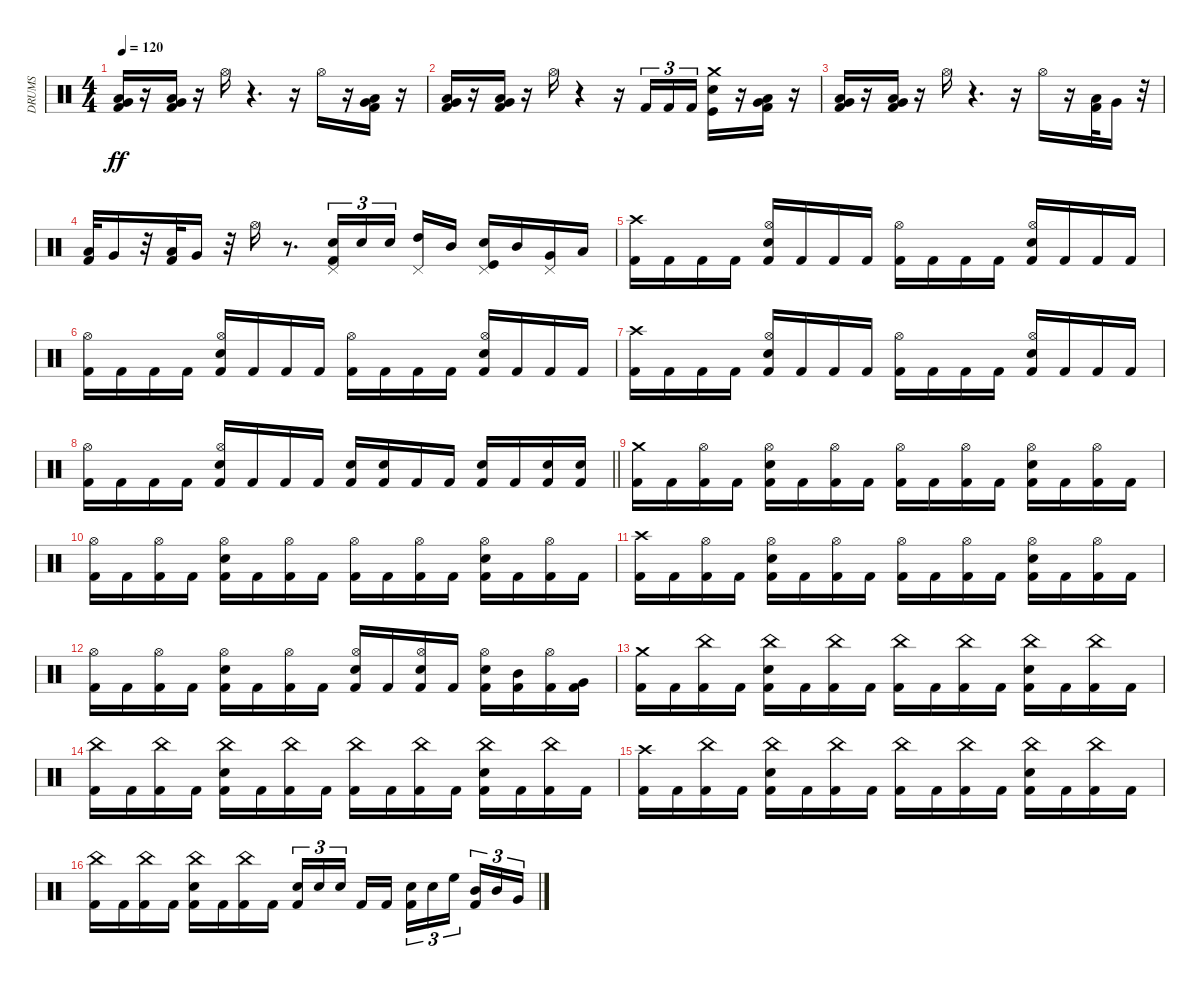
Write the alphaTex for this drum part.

\track ("DRUMS" "DRUMS") {instrument percussion}
\staff {score}
\articulation defaults
\ts (4 4)
\section ("" "")
\tempo 120
\clef neutral
\ks c
("Kick (hit) 2" "Low Floor Tom (hit)" "Very Low Tom (hit)").16{dy ff} r.16 ("Kick (hit) 2" "Low Floor Tom (hit)" "Very Low Tom (hit)").16 r.16 "Hi-Hat (open)".16 r.4{d} r.16 "Hi-Hat (open)".16 r.16 ("Kick (hit) 2" "Low Floor Tom (hit)" "Very Low Tom (hit)").16 r.16 |
("Kick (hit) 2" "Low Floor Tom (hit)" "Very Low Tom (hit)").16 r.16 ("Kick (hit) 2" "Low Floor Tom (hit)" "Very Low Tom (hit)").16 r.16 "Hi-Hat (open)".16 r.4 r.16 "Kick (hit) 2".16{tu (3 2)} "Kick (hit) 2".16{tu (3 2)} "Kick (hit) 2".16{tu (3 2)} ("Kick (hit)" "Electric Snare (hit)" "Crash medium (hit)").16 r.16 ("Kick (hit) 2" "Low Floor Tom (hit)" "Very Low Tom (hit)").16 r.16 |
("Kick (hit) 2" "Low Floor Tom (hit)" "Very Low Tom (hit)").16 r.16 ("Kick (hit) 2" "Low Floor Tom (hit)" "Very Low Tom (hit)").16 r.16 "Hi-Hat (open)".16 r.4{d} r.16 "Hi-Hat (open)".16 r.16 ("Kick (hit) 2" "Low Floor Tom (hit)").32 "Very Low Tom (hit)".16 r.32 |
("Kick (hit) 2" "Low Floor Tom (hit)").32 "Very Low Tom (hit)".16 r.32 ("Kick (hit) 2" "Low Floor Tom (hit)").32 "Very Low Tom (hit)".16 r.32 "Hi-Hat (open)".16 r.8{d} ("Kick (hit) 2" "Electric Snare (hit)" "Pedal Hi-Hat (hit)").16{tu (3 2)} "Electric Snare (hit)".16{tu (3 2)} "Electric Snare (hit)".16{tu (3 2) beam splitsecondary} ("Pedal Hi-Hat (hit)" "High Tom (hit)").16 "Mid Tom (hit)".16 ("Kick (hit)" "Electric Snare (hit)" "Pedal Hi-Hat (hit)").16 "Mid Tom (hit)".16 ("Pedal Hi-Hat (hit)" "Very Low Tom (hit)").16 "Low Floor Tom (hit)".16 |
("Kick (hit) 2" "Crash high (hit)").16 "Kick (hit) 2".16 "Kick (hit) 2".16 "Kick (hit) 2".16 ("Kick (hit) 2" "Electric Snare (hit)" "Hi-Hat (open)").16 "Kick (hit) 2".16 "Kick (hit) 2".16 "Kick (hit) 2".16 ("Kick (hit) 2" "Hi-Hat (open)").16 "Kick (hit) 2".16 "Kick (hit) 2".16 "Kick (hit) 2".16 ("Kick (hit) 2" "Electric Snare (hit)" "Hi-Hat (open)").16 "Kick (hit) 2".16 "Kick (hit) 2".16 "Kick (hit) 2".16 |
("Kick (hit) 2" "Hi-Hat (open)").16 "Kick (hit) 2".16 "Kick (hit) 2".16 "Kick (hit) 2".16 ("Kick (hit) 2" "Electric Snare (hit)" "Hi-Hat (open)").16 "Kick (hit) 2".16 "Kick (hit) 2".16 "Kick (hit) 2".16 ("Kick (hit) 2" "Hi-Hat (open)").16 "Kick (hit) 2".16 "Kick (hit) 2".16 "Kick (hit) 2".16 ("Kick (hit) 2" "Electric Snare (hit)" "Hi-Hat (open)").16 "Kick (hit) 2".16 "Kick (hit) 2".16 "Kick (hit) 2".16 |
("Kick (hit) 2" "Crash high (hit)").16 "Kick (hit) 2".16 "Kick (hit) 2".16 "Kick (hit) 2".16 ("Kick (hit) 2" "Electric Snare (hit)" "Hi-Hat (open)").16 "Kick (hit) 2".16 "Kick (hit) 2".16 "Kick (hit) 2".16 ("Kick (hit) 2" "Hi-Hat (open)").16 "Kick (hit) 2".16 "Kick (hit) 2".16 "Kick (hit) 2".16 ("Kick (hit) 2" "Electric Snare (hit)" "Hi-Hat (open)").16 "Kick (hit) 2".16 "Kick (hit) 2".16 "Kick (hit) 2".16 |
\barLineRight lightlight
("Kick (hit) 2" "Hi-Hat (open)").16 "Kick (hit) 2".16 "Kick (hit) 2".16 "Kick (hit) 2".16 ("Kick (hit) 2" "Electric Snare (hit)" "Hi-Hat (open)").16 "Kick (hit) 2".16 "Kick (hit) 2".16 "Kick (hit) 2".16 ("Kick (hit) 2" "Electric Snare (hit)").16 ("Kick (hit) 2" "Electric Snare (hit)").16 "Kick (hit) 2".16 "Kick (hit) 2".16 ("Kick (hit) 2" "Electric Snare (hit)").16 "Kick (hit) 2".16 ("Kick (hit) 2" "Electric Snare (hit)").16 ("Kick (hit) 2" "Electric Snare (hit)").16 |
("Kick (hit) 2" "Crash medium (hit)").16 "Kick (hit) 2".16 ("Kick (hit) 2" "Hi-Hat (open)").16 "Kick (hit) 2".16 ("Kick (hit) 2" "Electric Snare (hit)" "Hi-Hat (open)").16 "Kick (hit) 2".16 ("Kick (hit) 2" "Hi-Hat (open)").16 "Kick (hit) 2".16 ("Kick (hit) 2" "Hi-Hat (open)").16 "Kick (hit) 2".16 ("Kick (hit) 2" "Hi-Hat (open)").16 "Kick (hit) 2".16 ("Kick (hit) 2" "Electric Snare (hit)" "Hi-Hat (open)").16 "Kick (hit) 2".16 ("Kick (hit) 2" "Hi-Hat (open)").16 "Kick (hit) 2".16 |
("Kick (hit) 2" "Hi-Hat (open)").16 "Kick (hit) 2".16 ("Kick (hit) 2" "Hi-Hat (open)").16 "Kick (hit) 2".16 ("Kick (hit) 2" "Electric Snare (hit)" "Hi-Hat (open)").16 "Kick (hit) 2".16 ("Kick (hit) 2" "Hi-Hat (open)").16 "Kick (hit) 2".16 ("Kick (hit) 2" "Hi-Hat (open)").16 "Kick (hit) 2".16 ("Kick (hit) 2" "Hi-Hat (open)").16 "Kick (hit) 2".16 ("Kick (hit) 2" "Electric Snare (hit)" "Hi-Hat (open)").16 "Kick (hit) 2".16 ("Kick (hit) 2" "Hi-Hat (open)").16 "Kick (hit) 2".16 |
("Kick (hit) 2" "Crash high (hit)").16 "Kick (hit) 2".16 ("Kick (hit) 2" "Hi-Hat (open)").16 "Kick (hit) 2".16 ("Kick (hit) 2" "Electric Snare (hit)" "Hi-Hat (open)").16 "Kick (hit) 2".16 ("Kick (hit) 2" "Hi-Hat (open)").16 "Kick (hit) 2".16 ("Kick (hit) 2" "Hi-Hat (open)").16 "Kick (hit) 2".16 ("Kick (hit) 2" "Hi-Hat (open)").16 "Kick (hit) 2".16 ("Kick (hit) 2" "Electric Snare (hit)" "Hi-Hat (open)").16 "Kick (hit) 2".16 ("Kick (hit) 2" "Hi-Hat (open)").16 "Kick (hit) 2".16 |
("Kick (hit) 2" "Hi-Hat (open)").16 "Kick (hit) 2".16 ("Kick (hit) 2" "Hi-Hat (open)").16 "Kick (hit) 2".16 ("Kick (hit) 2" "Electric Snare (hit)" "Hi-Hat (open)").16 "Kick (hit) 2".16 ("Kick (hit) 2" "Hi-Hat (open)").16 "Kick (hit) 2".16 ("Kick (hit) 2" "Electric Snare (hit)" "Hi-Hat (open)").16 "Kick (hit) 2".16 ("Kick (hit) 2" "Electric Snare (hit)" "Hi-Hat (open)").16 "Kick (hit) 2".16 ("Kick (hit) 2" "Electric Snare (hit)" "Hi-Hat (open)").16 ("Kick (hit) 2" "Mid Tom (hit)").16 ("Kick (hit) 2" "Hi-Hat (open)").16 ("Kick (hit) 2" "Very Low Tom (hit)").16 |
("Kick (hit) 2" "Crash medium (hit)").16 "Kick (hit) 2".16 ("China (hit)" "Kick (hit) 2").16 "Kick (hit) 2".16 ("China (hit)" "Kick (hit) 2" "Electric Snare (hit)").16 "Kick (hit) 2".16 ("China (hit)" "Kick (hit) 2").16 "Kick (hit) 2".16 ("China (hit)" "Kick (hit) 2").16 "Kick (hit) 2".16 ("China (hit)" "Kick (hit) 2").16 "Kick (hit) 2".16 ("China (hit)" "Kick (hit) 2" "Electric Snare (hit)").16 "Kick (hit) 2".16 ("China (hit)" "Kick (hit) 2").16 "Kick (hit) 2".16 |
("China (hit)" "Kick (hit) 2").16 "Kick (hit) 2".16 ("China (hit)" "Kick (hit) 2").16 "Kick (hit) 2".16 ("China (hit)" "Kick (hit) 2" "Electric Snare (hit)").16 "Kick (hit) 2".16 ("China (hit)" "Kick (hit) 2").16 "Kick (hit) 2".16 ("China (hit)" "Kick (hit) 2").16 "Kick (hit) 2".16 ("China (hit)" "Kick (hit) 2").16 "Kick (hit) 2".16 ("China (hit)" "Kick (hit) 2" "Electric Snare (hit)").16 "Kick (hit) 2".16 ("China (hit)" "Kick (hit) 2").16 "Kick (hit) 2".16 |
("Kick (hit) 2" "Crash high (hit)").16 "Kick (hit) 2".16 ("China (hit)" "Kick (hit) 2").16 "Kick (hit) 2".16 ("China (hit)" "Kick (hit) 2" "Electric Snare (hit)").16 "Kick (hit) 2".16 ("China (hit)" "Kick (hit) 2").16 "Kick (hit) 2".16 ("China (hit)" "Kick (hit) 2").16 "Kick (hit) 2".16 ("China (hit)" "Kick (hit) 2").16 "Kick (hit) 2".16 ("China (hit)" "Kick (hit) 2" "Electric Snare (hit)").16 "Kick (hit) 2".16 ("China (hit)" "Kick (hit) 2").16 "Kick (hit) 2".16 |
("China (hit)" "Kick (hit) 2").16 "Kick (hit) 2".16 ("China (hit)" "Kick (hit) 2").16 "Kick (hit) 2".16 ("China (hit)" "Kick (hit) 2" "Electric Snare (hit)").16 "Kick (hit) 2".16 ("China (hit)" "Kick (hit) 2").16 "Kick (hit) 2".16 ("Electric Snare (hit)" "Kick (hit) 2").16{tu (3 2)} "Electric Snare (hit)".16{tu (3 2)} "Electric Snare (hit)".16{tu (3 2) beam splitsecondary} "Kick (hit) 2".16 "Kick (hit) 2".16 ("Electric Snare (hit)" "Kick (hit) 2").16{tu (3 2)} "Electric Snare (hit)".16{tu (3 2)} "High Floor Tom (hit)".16{tu (3 2) beam splitsecondary} ("Kick (hit) 2" "Mid Tom (hit)").16{tu (3 2)} "Mid Tom (hit)".16{tu (3 2)} "Very Low Tom (hit)".16{tu (3 2)}
